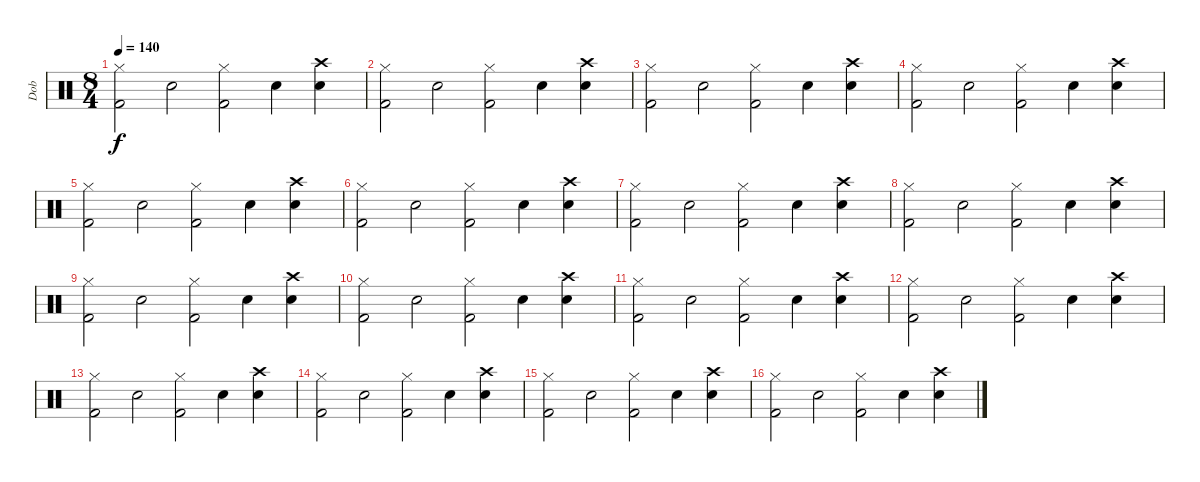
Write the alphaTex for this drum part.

\track ("Dob" "Dob") {instrument percussion}
\staff {score}
\articulation defaults
\ts (8 4)
\tempo 140
\clef neutral
\ks c
("Kick (hit) 2" "Hi-Hat (closed)").2{dy f} "Snare (hit) 2".2 ("Kick (hit) 2" "Hi-Hat (closed)").2 "Snare (hit) 2".4 ("Snare (hit) 2" "Crash high (hit)").4 |
("Kick (hit) 2" "Hi-Hat (closed)").2 "Snare (hit) 2".2 ("Kick (hit) 2" "Hi-Hat (closed)").2 "Snare (hit) 2".4 ("Snare (hit) 2" "Crash high (hit)").4 |
("Kick (hit) 2" "Hi-Hat (closed)").2 "Snare (hit) 2".2 ("Kick (hit) 2" "Hi-Hat (closed)").2 "Snare (hit) 2".4 ("Snare (hit) 2" "Crash high (hit)").4 |
("Kick (hit) 2" "Hi-Hat (closed)").2 "Snare (hit) 2".2 ("Kick (hit) 2" "Hi-Hat (closed)").2 "Snare (hit) 2".4 ("Snare (hit) 2" "Crash high (hit)").4 |
("Kick (hit) 2" "Hi-Hat (closed)").2 "Snare (hit) 2".2 ("Kick (hit) 2" "Hi-Hat (closed)").2 "Snare (hit) 2".4 ("Snare (hit) 2" "Crash high (hit)").4 |
("Kick (hit) 2" "Hi-Hat (closed)").2 "Snare (hit) 2".2 ("Kick (hit) 2" "Hi-Hat (closed)").2 "Snare (hit) 2".4 ("Snare (hit) 2" "Crash high (hit)").4 |
("Kick (hit) 2" "Hi-Hat (closed)").2 "Snare (hit) 2".2 ("Kick (hit) 2" "Hi-Hat (closed)").2 "Snare (hit) 2".4 ("Snare (hit) 2" "Crash high (hit)").4 |
("Kick (hit) 2" "Hi-Hat (closed)").2 "Snare (hit) 2".2 ("Kick (hit) 2" "Hi-Hat (closed)").2 "Snare (hit) 2".4 ("Snare (hit) 2" "Crash high (hit)").4 |
("Kick (hit) 2" "Hi-Hat (closed)").2 "Snare (hit) 2".2 ("Kick (hit) 2" "Hi-Hat (closed)").2 "Snare (hit) 2".4 ("Snare (hit) 2" "Crash high (hit)").4 |
("Kick (hit) 2" "Hi-Hat (closed)").2 "Snare (hit) 2".2 ("Kick (hit) 2" "Hi-Hat (closed)").2 "Snare (hit) 2".4 ("Snare (hit) 2" "Crash high (hit)").4 |
("Kick (hit) 2" "Hi-Hat (closed)").2 "Snare (hit) 2".2 ("Kick (hit) 2" "Hi-Hat (closed)").2 "Snare (hit) 2".4 ("Snare (hit) 2" "Crash high (hit)").4 |
("Kick (hit) 2" "Hi-Hat (closed)").2 "Snare (hit) 2".2 ("Kick (hit) 2" "Hi-Hat (closed)").2 "Snare (hit) 2".4 ("Snare (hit) 2" "Crash high (hit)").4 |
("Kick (hit) 2" "Hi-Hat (closed)").2 "Snare (hit) 2".2 ("Kick (hit) 2" "Hi-Hat (closed)").2 "Snare (hit) 2".4 ("Snare (hit) 2" "Crash high (hit)").4 |
("Kick (hit) 2" "Hi-Hat (closed)").2 "Snare (hit) 2".2 ("Kick (hit) 2" "Hi-Hat (closed)").2 "Snare (hit) 2".4 ("Snare (hit) 2" "Crash high (hit)").4 |
("Kick (hit) 2" "Hi-Hat (closed)").2 "Snare (hit) 2".2 ("Kick (hit) 2" "Hi-Hat (closed)").2 "Snare (hit) 2".4 ("Snare (hit) 2" "Crash high (hit)").4 |
("Kick (hit) 2" "Hi-Hat (closed)").2 "Snare (hit) 2".2 ("Kick (hit) 2" "Hi-Hat (closed)").2 "Snare (hit) 2".4 ("Snare (hit) 2" "Crash high (hit)").4
